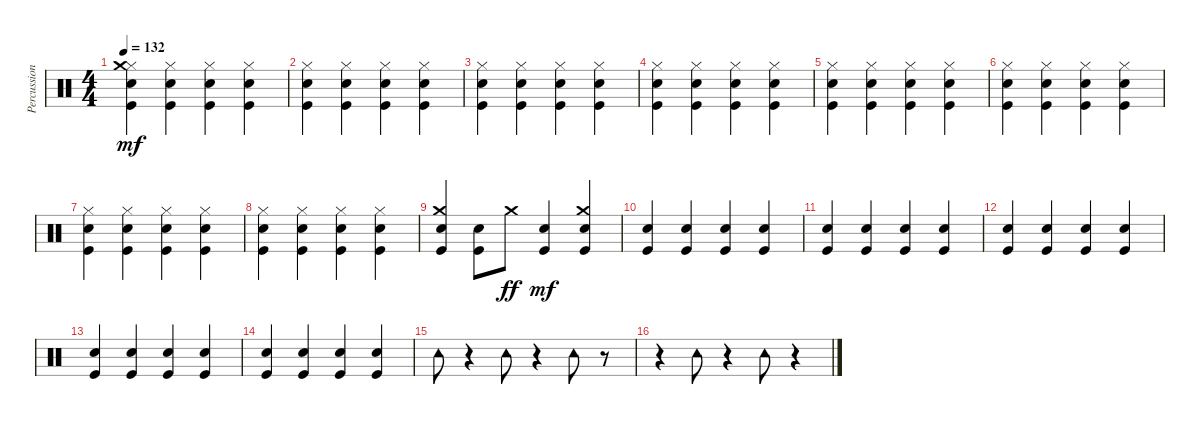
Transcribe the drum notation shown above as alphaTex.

\track ("Percussion" "Percussion") {instrument percussion}
\staff {score}
\articulation defaults
\ts (4 4)
\tempo 132
\clef neutral
\ks c
("Hi-Hat (closed)" "Snare (hit) 2" "Crash medium (hit)" "Kick (hit)").4{dy mf} ("Hi-Hat (closed)" "Kick (hit)" "Snare (hit) 2").4 ("Hi-Hat (closed)" "Kick (hit)" "Snare (hit) 2").4 ("Hi-Hat (closed)" "Kick (hit)" "Snare (hit) 2").4 |
("Hi-Hat (closed)" "Kick (hit)" "Snare (hit) 2").4 ("Hi-Hat (closed)" "Kick (hit)" "Snare (hit) 2").4 ("Hi-Hat (closed)" "Kick (hit)" "Snare (hit) 2").4 ("Hi-Hat (closed)" "Kick (hit)" "Snare (hit) 2").4 |
("Hi-Hat (closed)" "Snare (hit) 2" "Kick (hit)").4 ("Hi-Hat (closed)" "Kick (hit)" "Snare (hit) 2").4 ("Hi-Hat (closed)" "Kick (hit)" "Snare (hit) 2").4 ("Hi-Hat (closed)" "Kick (hit)" "Snare (hit) 2").4 |
("Hi-Hat (closed)" "Kick (hit)" "Snare (hit) 2").4 ("Hi-Hat (closed)" "Kick (hit)" "Snare (hit) 2").4 ("Hi-Hat (closed)" "Kick (hit)" "Snare (hit) 2").4 ("Hi-Hat (closed)" "Kick (hit)" "Snare (hit) 2").4 |
("Hi-Hat (closed)" "Snare (hit) 2" "Kick (hit)").4 ("Hi-Hat (closed)" "Kick (hit)" "Snare (hit) 2").4 ("Hi-Hat (closed)" "Kick (hit)" "Snare (hit) 2").4 ("Hi-Hat (closed)" "Kick (hit)" "Snare (hit) 2").4 |
("Hi-Hat (closed)" "Kick (hit)" "Snare (hit) 2").4 ("Hi-Hat (closed)" "Kick (hit)" "Snare (hit) 2").4 ("Hi-Hat (closed)" "Kick (hit)" "Snare (hit) 2").4 ("Hi-Hat (closed)" "Kick (hit)" "Snare (hit) 2").4 |
("Hi-Hat (closed)" "Snare (hit) 2" "Kick (hit)").4 ("Hi-Hat (closed)" "Kick (hit)" "Snare (hit) 2").4 ("Hi-Hat (closed)" "Kick (hit)" "Snare (hit) 2").4 ("Hi-Hat (closed)" "Kick (hit)" "Snare (hit) 2").4 |
("Hi-Hat (closed)" "Kick (hit)" "Snare (hit) 2").4 ("Hi-Hat (closed)" "Kick (hit)" "Snare (hit) 2").4 ("Hi-Hat (closed)" "Kick (hit)" "Snare (hit) 2").4 ("Hi-Hat (closed)" "Kick (hit)" "Snare (hit) 2").4 |
("Crash medium (hit)" "Kick (hit)" "Snare (hit) 2").4 ("Kick (hit)" "Snare (hit) 2").8 "Crash medium (hit)".8{dy ff} ("Kick (hit)" "Snare (hit) 2").4{dy mf} ("Crash medium (hit)" "Kick (hit)" "Snare (hit) 2").4 |
("Kick (hit)" "Snare (hit) 2").4 ("Kick (hit)" "Snare (hit) 2").4 ("Kick (hit)" "Snare (hit) 2").4 ("Kick (hit)" "Snare (hit) 2").4 |
("Kick (hit)" "Snare (hit) 2").4 ("Kick (hit)" "Snare (hit) 2").4 ("Kick (hit)" "Snare (hit) 2").4 ("Kick (hit)" "Snare (hit) 2").4 |
("Kick (hit)" "Snare (hit) 2").4 ("Kick (hit)" "Snare (hit) 2").4 ("Kick (hit)" "Snare (hit) 2").4 ("Kick (hit)" "Snare (hit) 2").4 |
("Snare (hit) 2" "Kick (hit)").4 ("Kick (hit)" "Snare (hit) 2").4 ("Snare (hit) 2" "Kick (hit)").4 ("Kick (hit)" "Snare (hit) 2").4 |
("Snare (hit) 2" "Kick (hit)").4 ("Kick (hit)" "Snare (hit) 2").4 ("Kick (hit)" "Snare (hit) 2").4 ("Kick (hit)" "Snare (hit) 2").4 |
"Tambourine (hit)".8 r.4 "Tambourine (hit)".8 r.4 "Tambourine (hit)".8 r.8 |
r.4 "Tambourine (hit)".8 r.4 "Tambourine (hit)".8 r.4
